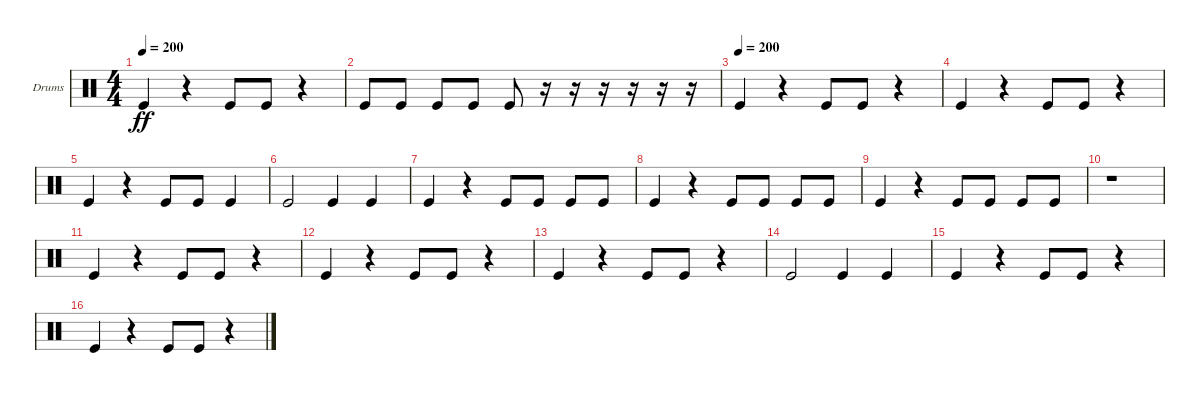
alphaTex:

\bracketExtendMode groupsimilarinstruments
\firstSystemTrackNameOrientation horizontal
\otherSystemsTrackNameOrientation horizontal
\track ("Drumkit" "Drums") {instrument percussion}
\staff {score}
\articulation defaults
\ts (4 4)
\tempo 200
\clef neutral
\ks c "Kick (hit)".4{dy ff}
r.4 "Kick (hit)".8 "Kick (hit)".8 r.4 |
"Kick (hit)".8 "Kick (hit)".8 "Kick (hit)".8 "Kick (hit)".8 "Kick (hit)".8 r.16 r.16 r.16 r.16 r.16 r.16 |
\tempo (200)
"Kick (hit)".4 r.4 "Kick (hit)".8 "Kick (hit)".8 r.4 |
"Kick (hit)".4 r.4 "Kick (hit)".8 "Kick (hit)".8 r.4 |
"Kick (hit)".4 r.4 "Kick (hit)".8 "Kick (hit)".8 "Kick (hit)".4 |
"Kick (hit)".2 "Kick (hit)".4 "Kick (hit)".4 |
"Kick (hit)".4 r.4 "Kick (hit)".8 "Kick (hit)".8 "Kick (hit)".8 "Kick (hit)".8 |
"Kick (hit)".4 r.4 "Kick (hit)".8 "Kick (hit)".8 "Kick (hit)".8 "Kick (hit)".8 |
"Kick (hit)".4 r.4 "Kick (hit)".8 "Kick (hit)".8 "Kick (hit)".8 "Kick (hit)".8 |
r.1 |
"Kick (hit)".4 r.4 "Kick (hit)".8 "Kick (hit)".8 r.4 |
"Kick (hit)".4 r.4 "Kick (hit)".8 "Kick (hit)".8 r.4 |
"Kick (hit)".4 r.4 "Kick (hit)".8 "Kick (hit)".8 r.4 |
"Kick (hit)".2 "Kick (hit)".4 "Kick (hit)".4 |
"Kick (hit)".4 r.4 "Kick (hit)".8 "Kick (hit)".8 r.4 |
"Kick (hit)".4 r.4 "Kick (hit)".8 "Kick (hit)".8 r.4
